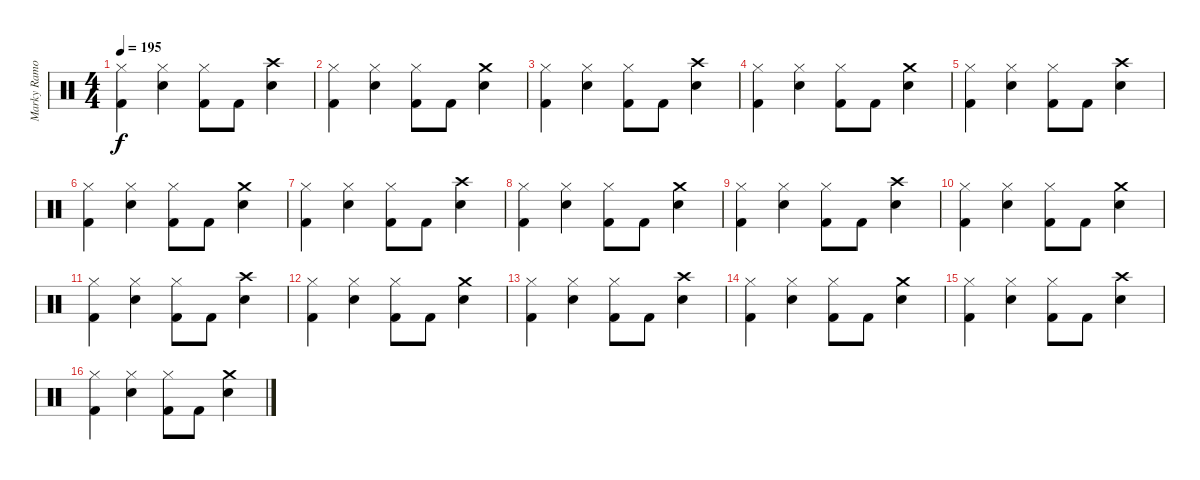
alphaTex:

\track ("Marky Ramone" "Marky Ramo") {instrument percussion}
\staff {score}
\articulation defaults
\ts (4 4)
\tempo 195
\clef neutral
\ks c
("Hi-Hat (closed)" "Kick (hit) 2").4{dy f} ("Hi-Hat (closed)" "Snare (hit) 2").4 ("Hi-Hat (closed)" "Kick (hit) 2").8 "Kick (hit) 2".8 ("Crash high (hit)" "Snare (hit) 2").4 |
("Hi-Hat (closed)" "Kick (hit) 2").4 ("Hi-Hat (closed)" "Snare (hit) 2").4 ("Hi-Hat (closed)" "Kick (hit) 2").8 "Kick (hit) 2".8 ("Crash medium (hit)" "Snare (hit) 2").4 |
("Hi-Hat (closed)" "Kick (hit) 2").4 ("Hi-Hat (closed)" "Snare (hit) 2").4 ("Hi-Hat (closed)" "Kick (hit) 2").8 "Kick (hit) 2".8 ("Crash high (hit)" "Snare (hit) 2").4 |
("Hi-Hat (closed)" "Kick (hit) 2").4 ("Hi-Hat (closed)" "Snare (hit) 2").4 ("Hi-Hat (closed)" "Kick (hit) 2").8 "Kick (hit) 2".8 ("Crash medium (hit)" "Snare (hit) 2").4 |
("Hi-Hat (closed)" "Kick (hit) 2").4 ("Hi-Hat (closed)" "Snare (hit) 2").4 ("Hi-Hat (closed)" "Kick (hit) 2").8 "Kick (hit) 2".8 ("Crash high (hit)" "Snare (hit) 2").4 |
("Hi-Hat (closed)" "Kick (hit) 2").4 ("Hi-Hat (closed)" "Snare (hit) 2").4 ("Hi-Hat (closed)" "Kick (hit) 2").8 "Kick (hit) 2".8 ("Crash medium (hit)" "Snare (hit) 2").4 |
("Hi-Hat (closed)" "Kick (hit) 2").4 ("Hi-Hat (closed)" "Snare (hit) 2").4 ("Hi-Hat (closed)" "Kick (hit) 2").8 "Kick (hit) 2".8 ("Crash high (hit)" "Snare (hit) 2").4 |
("Hi-Hat (closed)" "Kick (hit) 2").4 ("Hi-Hat (closed)" "Snare (hit) 2").4 ("Hi-Hat (closed)" "Kick (hit) 2").8 "Kick (hit) 2".8 ("Crash medium (hit)" "Snare (hit) 2").4 |
("Hi-Hat (closed)" "Kick (hit) 2").4 ("Hi-Hat (closed)" "Snare (hit) 2").4 ("Hi-Hat (closed)" "Kick (hit) 2").8 "Kick (hit) 2".8 ("Crash high (hit)" "Snare (hit) 2").4 |
("Hi-Hat (closed)" "Kick (hit) 2").4 ("Hi-Hat (closed)" "Snare (hit) 2").4 ("Hi-Hat (closed)" "Kick (hit) 2").8 "Kick (hit) 2".8 ("Crash medium (hit)" "Snare (hit) 2").4 |
("Hi-Hat (closed)" "Kick (hit) 2").4 ("Hi-Hat (closed)" "Snare (hit) 2").4 ("Hi-Hat (closed)" "Kick (hit) 2").8 "Kick (hit) 2".8 ("Crash high (hit)" "Snare (hit) 2").4 |
("Hi-Hat (closed)" "Kick (hit) 2").4 ("Hi-Hat (closed)" "Snare (hit) 2").4 ("Hi-Hat (closed)" "Kick (hit) 2").8 "Kick (hit) 2".8 ("Crash medium (hit)" "Snare (hit) 2").4 |
("Hi-Hat (closed)" "Kick (hit) 2").4 ("Hi-Hat (closed)" "Snare (hit) 2").4 ("Hi-Hat (closed)" "Kick (hit) 2").8 "Kick (hit) 2".8 ("Crash high (hit)" "Snare (hit) 2").4 |
("Hi-Hat (closed)" "Kick (hit) 2").4 ("Hi-Hat (closed)" "Snare (hit) 2").4 ("Hi-Hat (closed)" "Kick (hit) 2").8 "Kick (hit) 2".8 ("Crash medium (hit)" "Snare (hit) 2").4 |
("Hi-Hat (closed)" "Kick (hit) 2").4 ("Hi-Hat (closed)" "Snare (hit) 2").4 ("Hi-Hat (closed)" "Kick (hit) 2").8 "Kick (hit) 2".8 ("Crash high (hit)" "Snare (hit) 2").4 |
("Hi-Hat (closed)" "Kick (hit) 2").4 ("Hi-Hat (closed)" "Snare (hit) 2").4 ("Hi-Hat (closed)" "Kick (hit) 2").8 "Kick (hit) 2".8 ("Crash medium (hit)" "Snare (hit) 2").4
